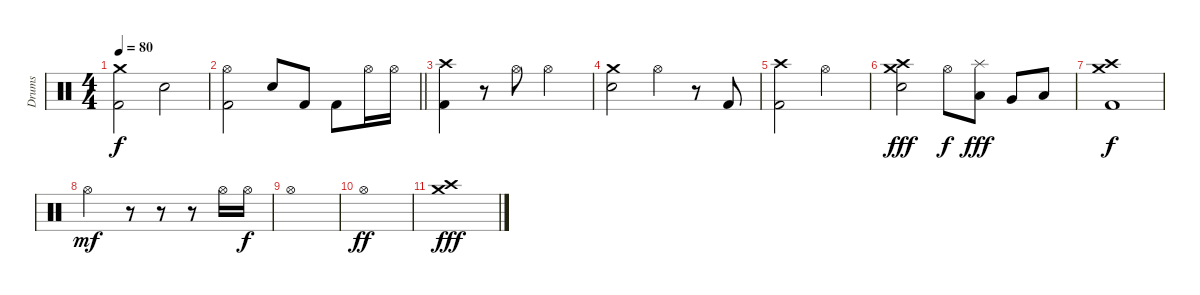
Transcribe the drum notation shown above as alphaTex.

\track ("Drums" "Drums") {instrument percussion}
\staff {score}
\articulation defaults
\ts (4 4)
\tempo 80
\clef neutral
\ks c
("Kick (hit) 2" "Crash medium (hit)").2{dy f} "Electric Snare (hit)".2 |
\barLineRight lightlight
("Kick (hit) 2" "Hi-Hat (open)").2 "Electric Snare (hit)".8 "Kick (hit) 2".8 "Kick (hit) 2".8 "Hi-Hat (open)".16 "Hi-Hat (open)".16 |
("Kick (hit) 2" "Crash high (hit)").4 r.8 "Hi-Hat (open)".8 "Hi-Hat (open)".2 |
("Electric Snare (hit)" "Crash medium (hit)").2 "Hi-Hat (open)".4 r.8 "Kick (hit) 2".8 |
("Kick (hit) 2" "Crash high (hit)").2 "Hi-Hat (open)".2 |
("Electric Snare (hit)" "Crash high (hit)" "Crash medium (hit)").2{dy fff} "Hi-Hat (open)".8{dy f} ("Low Tom (hit)" "Splash (hit)").8{dy fff} "Very Low Tom (hit)".8 "Low Floor Tom (hit)".8 |
("Kick (hit) 2" "Crash high (hit)" "Crash medium (hit)").1{dy f} |
"Hi-Hat (open)".2{dy mf} r.8 r.8 r.8 "Hi-Hat (open)".16 "Hi-Hat (open)".16{dy f} |
"Hi-Hat (open)".1 |
"Hi-Hat (open)".1{dy ff} |
("Crash high (hit)" "Crash medium (hit)").1{dy fff}
